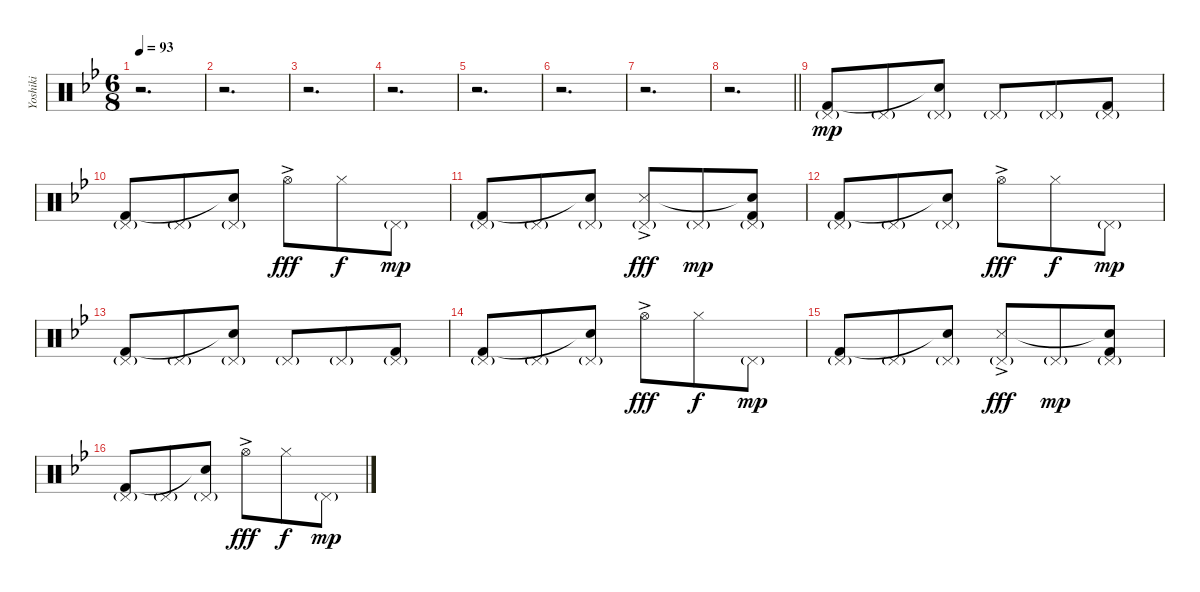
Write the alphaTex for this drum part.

\track ("Yoshiki" "Yoshiki") {instrument percussion}
\staff {score}
\articulation defaults
\ts (6 8)
\tempo 93
\clef neutral
\ks bb
r.2{d dy f} |
r.2{d} |
r.2{d} |
r.2{d} |
r.2{d} |
r.2{d} |
r.2{d} |
\barLineRight lightlight
r.2{d} |
("Pedal Hi-Hat (hit)"{g} "Kick (hit) 2").8{dy mp} "Pedal Hi-Hat (hit)"{g}.8 ("Pedal Hi-Hat (hit)"{g} "Snare (hit)"{t}).8 "Pedal Hi-Hat (hit)"{g}.8 "Pedal Hi-Hat (hit)"{g}.8 ("Pedal Hi-Hat (hit)"{g} "Kick (hit) 2").8 |
("Pedal Hi-Hat (hit)"{g} "Kick (hit) 2").8 "Pedal Hi-Hat (hit)"{g}.8 ("Pedal Hi-Hat (hit)"{g} "Snare (hit)"{t}).8 "Hi-Hat (open)"{ac}.8{dy fff} "Hi-Hat (closed)".8{dy f} "Pedal Hi-Hat (hit)"{g}.8{dy mp} |
("Pedal Hi-Hat (hit)"{g} "Kick (hit) 2").8 "Pedal Hi-Hat (hit)"{g}.8 ("Pedal Hi-Hat (hit)"{g} "Snare (hit)"{t}).8 ("Pedal Hi-Hat (hit)"{g} "Snare (side stick) 3"{ac}).8{dy fff} "Pedal Hi-Hat (hit)"{g}.8{dy mp} ("Pedal Hi-Hat (hit)"{g} "Snare (hit)"{t} "Kick (hit) 2").8 |
("Pedal Hi-Hat (hit)"{g} "Kick (hit) 2").8 "Pedal Hi-Hat (hit)"{g}.8 ("Pedal Hi-Hat (hit)"{g} "Snare (hit)"{t}).8 "Hi-Hat (open)"{ac}.8{dy fff} "Hi-Hat (closed)".8{dy f} "Pedal Hi-Hat (hit)"{g}.8{dy mp} |
("Pedal Hi-Hat (hit)"{g} "Kick (hit) 2").8 "Pedal Hi-Hat (hit)"{g}.8 ("Pedal Hi-Hat (hit)"{g} "Snare (hit)"{t}).8 "Pedal Hi-Hat (hit)"{g}.8 "Pedal Hi-Hat (hit)"{g}.8 ("Pedal Hi-Hat (hit)"{g} "Kick (hit) 2").8 |
("Pedal Hi-Hat (hit)"{g} "Kick (hit) 2").8 "Pedal Hi-Hat (hit)"{g}.8 ("Pedal Hi-Hat (hit)"{g} "Snare (hit)"{t}).8 "Hi-Hat (open)"{ac}.8{dy fff} "Hi-Hat (closed)".8{dy f} "Pedal Hi-Hat (hit)"{g}.8{dy mp} |
("Pedal Hi-Hat (hit)"{g} "Kick (hit) 2").8 "Pedal Hi-Hat (hit)"{g}.8 ("Pedal Hi-Hat (hit)"{g} "Snare (hit)"{t}).8 ("Pedal Hi-Hat (hit)"{g} "Snare (side stick) 3"{ac}).8{dy fff} "Pedal Hi-Hat (hit)"{g}.8{dy mp} ("Pedal Hi-Hat (hit)"{g} "Snare (hit)"{t} "Kick (hit) 2").8 |
("Pedal Hi-Hat (hit)"{g} "Kick (hit) 2").8 "Pedal Hi-Hat (hit)"{g}.8 ("Pedal Hi-Hat (hit)"{g} "Snare (hit)"{t}).8 "Hi-Hat (open)"{ac}.8{dy fff} "Hi-Hat (closed)".8{dy f} "Pedal Hi-Hat (hit)"{g}.8{dy mp}
